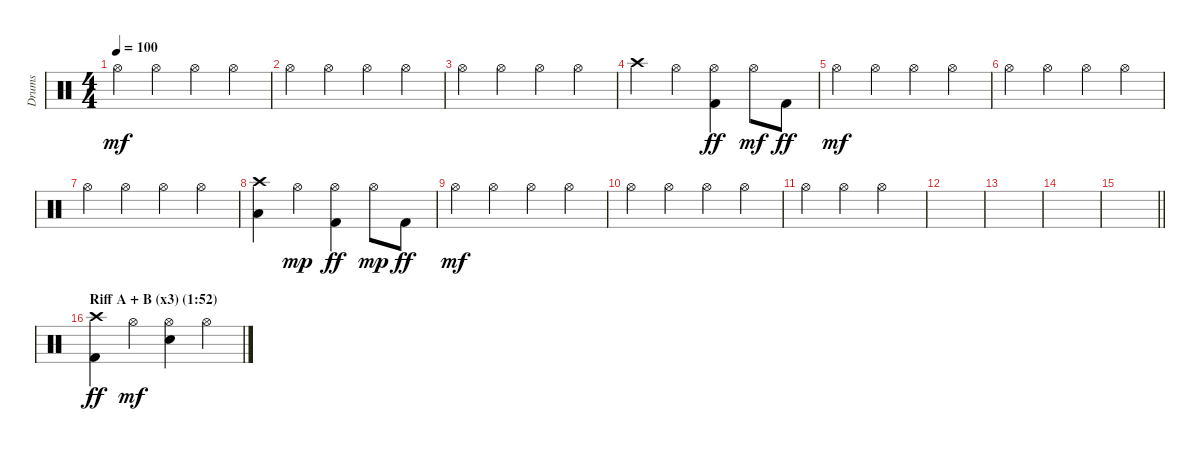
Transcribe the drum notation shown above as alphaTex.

\track ("Drums" "Drums") {instrument percussion}
\staff {score}
\articulation defaults
\ts (4 4)
\tempo 100
\clef neutral
\ks c "Hi-Hat (open)".4{dy mf} "Hi-Hat (open)".4 "Hi-Hat (open)".4 "Hi-Hat (open)".4
|
"Hi-Hat (open)".4 "Hi-Hat (open)".4 "Hi-Hat (open)".4 "Hi-Hat (open)".4 |
"Hi-Hat (open)".4 "Hi-Hat (open)".4 "Hi-Hat (open)".4 "Hi-Hat (open)".4 |
"Crash high (hit)".4 "Hi-Hat (open)".4 ("Hi-Hat (open)" "Kick (hit) 2").4{dy ff} "Hi-Hat (open)".8{dy mf} "Kick (hit) 2".8{dy ff} |
"Hi-Hat (open)".4{dy mf} "Hi-Hat (open)".4 "Hi-Hat (open)".4 "Hi-Hat (open)".4 |
"Hi-Hat (open)".4 "Hi-Hat (open)".4 "Hi-Hat (open)".4 "Hi-Hat (open)".4 |
"Hi-Hat (open)".4 "Hi-Hat (open)".4 "Hi-Hat (open)".4 "Hi-Hat (open)".4 |
("Crash high (hit)" "Low Floor Tom (hit)").4 "Hi-Hat (open)".4{dy mp} ("Hi-Hat (open)" "Kick (hit) 2").4{dy ff} "Hi-Hat (open)".8{dy mp} "Kick (hit) 2".8{dy ff} |
"Hi-Hat (open)".4{dy mf} "Hi-Hat (open)".4 "Hi-Hat (open)".4 "Hi-Hat (open)".4 |
"Hi-Hat (open)".4 "Hi-Hat (open)".4 "Hi-Hat (open)".4 "Hi-Hat (open)".4 |
"Hi-Hat (open)".4 "Hi-Hat (open)".4 "Hi-Hat (open)".2 |
|
|
|
\barLineRight lightlight
|
\section ("" "Riff A + B (x3) (1:52)")
("Crash high (hit)" "Kick (hit) 2").4{dy ff volume 15} "Hi-Hat (open)".4{dy mf} ("Hi-Hat (open)" "Electric Snare (hit)").4 "Hi-Hat (open)".4
